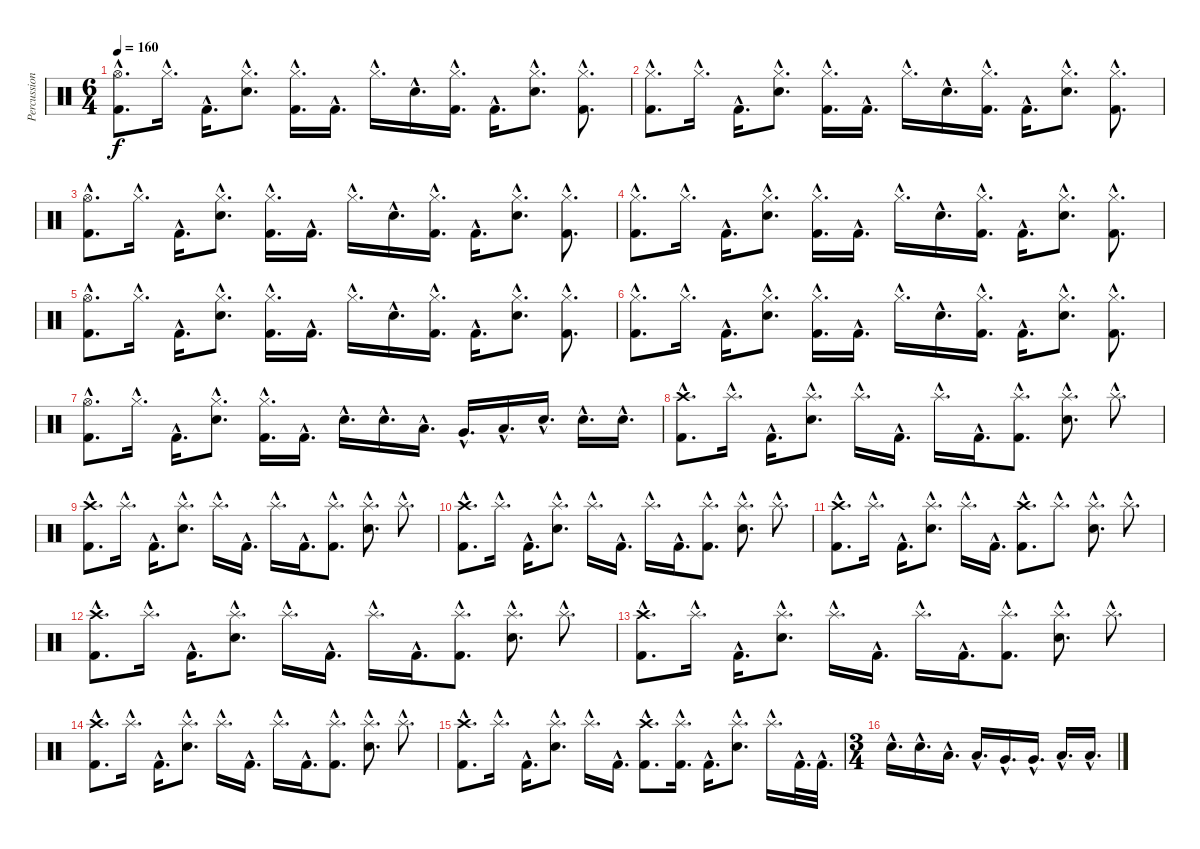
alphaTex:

\track ("Percussion" "Percussion") {instrument percussion}
\staff {score}
\articulation defaults
\ts (6 4)
\tempo 160
\clef neutral
\ks c
("Hi-Hat (open)"{hac} "Kick (hit) 2"{hac}).8{d dy f} "Hi-Hat (closed)"{hac}.16{d} "Kick (hit) 2"{hac}.16{d} ("Hi-Hat (closed)"{hac} "Electric Snare (hit)"{hac}).8{d} ("Hi-Hat (closed)"{hac} "Kick (hit) 2"{hac}).16{d} "Kick (hit) 2"{hac}.16{d} "Hi-Hat (closed)"{hac}.16{d} "Electric Snare (hit)"{hac}.16{d} ("Hi-Hat (closed)"{hac} "Kick (hit) 2"{hac}).16{d} "Kick (hit) 2"{hac}.16{d} ("Hi-Hat (closed)"{hac} "Electric Snare (hit)"{hac}).8{d} ("Hi-Hat (closed)"{hac} "Kick (hit) 2"{hac}).8{d} |
("Hi-Hat (closed)"{hac} "Kick (hit) 2"{hac}).8{d} "Hi-Hat (closed)"{hac}.16{d} "Kick (hit) 2"{hac}.16{d} ("Hi-Hat (closed)"{hac} "Electric Snare (hit)"{hac}).8{d} ("Hi-Hat (closed)"{hac} "Kick (hit) 2"{hac}).16{d} "Kick (hit) 2"{hac}.16{d} "Hi-Hat (closed)"{hac}.16{d} "Electric Snare (hit)"{hac}.16{d} ("Hi-Hat (closed)"{hac} "Kick (hit) 2"{hac}).16{d} "Kick (hit) 2"{hac}.16{d} ("Hi-Hat (closed)"{hac} "Electric Snare (hit)"{hac}).8{d} ("Hi-Hat (closed)"{hac} "Kick (hit) 2"{hac}).8{d} |
("Hi-Hat (open)"{hac} "Kick (hit) 2"{hac}).8{d} "Hi-Hat (closed)"{hac}.16{d} "Kick (hit) 2"{hac}.16{d} ("Hi-Hat (closed)"{hac} "Electric Snare (hit)"{hac}).8{d} ("Hi-Hat (closed)"{hac} "Kick (hit) 2"{hac}).16{d} "Kick (hit) 2"{hac}.16{d} "Hi-Hat (closed)"{hac}.16{d} "Electric Snare (hit)"{hac}.16{d} ("Hi-Hat (closed)"{hac} "Kick (hit) 2"{hac}).16{d} "Kick (hit) 2"{hac}.16{d} ("Hi-Hat (closed)"{hac} "Electric Snare (hit)"{hac}).8{d} ("Hi-Hat (closed)"{hac} "Kick (hit) 2"{hac}).8{d} |
("Hi-Hat (closed)"{hac} "Kick (hit) 2"{hac}).8{d} "Hi-Hat (closed)"{hac}.16{d} "Kick (hit) 2"{hac}.16{d} ("Hi-Hat (closed)"{hac} "Electric Snare (hit)"{hac}).8{d} ("Hi-Hat (closed)"{hac} "Kick (hit) 2"{hac}).16{d} "Kick (hit) 2"{hac}.16{d} "Hi-Hat (closed)"{hac}.16{d} "Electric Snare (hit)"{hac}.16{d} ("Hi-Hat (closed)"{hac} "Kick (hit) 2"{hac}).16{d} "Kick (hit) 2"{hac}.16{d} ("Hi-Hat (closed)"{hac} "Electric Snare (hit)"{hac}).8{d} ("Hi-Hat (closed)"{hac} "Kick (hit) 2"{hac}).8{d} |
("Hi-Hat (open)"{hac} "Kick (hit) 2"{hac}).8{d} "Hi-Hat (closed)"{hac}.16{d} "Kick (hit) 2"{hac}.16{d} ("Hi-Hat (closed)"{hac} "Electric Snare (hit)"{hac}).8{d} ("Hi-Hat (closed)"{hac} "Kick (hit) 2"{hac}).16{d} "Kick (hit) 2"{hac}.16{d} "Hi-Hat (closed)"{hac}.16{d} "Electric Snare (hit)"{hac}.16{d} ("Hi-Hat (closed)"{hac} "Kick (hit) 2"{hac}).16{d} "Kick (hit) 2"{hac}.16{d} ("Hi-Hat (closed)"{hac} "Electric Snare (hit)"{hac}).8{d} ("Hi-Hat (closed)"{hac} "Kick (hit) 2"{hac}).8{d} |
("Hi-Hat (closed)"{hac} "Kick (hit) 2"{hac}).8{d} "Hi-Hat (closed)"{hac}.16{d} "Kick (hit) 2"{hac}.16{d} ("Hi-Hat (closed)"{hac} "Electric Snare (hit)"{hac}).8{d} ("Hi-Hat (closed)"{hac} "Kick (hit) 2"{hac}).16{d} "Kick (hit) 2"{hac}.16{d} "Hi-Hat (closed)"{hac}.16{d} "Electric Snare (hit)"{hac}.16{d} ("Hi-Hat (closed)"{hac} "Kick (hit) 2"{hac}).16{d} "Kick (hit) 2"{hac}.16{d} ("Hi-Hat (closed)"{hac} "Electric Snare (hit)"{hac}).8{d} ("Hi-Hat (closed)"{hac} "Kick (hit) 2"{hac}).8{d} |
("Hi-Hat (open)"{hac} "Kick (hit) 2"{hac}).8{d} "Hi-Hat (closed)"{hac}.16{d} "Kick (hit) 2"{hac}.16{d} ("Hi-Hat (closed)"{hac} "Electric Snare (hit)"{hac}).8{d} ("Hi-Hat (closed)"{hac} "Kick (hit) 2"{hac}).16{d} "Kick (hit) 2"{hac}.16{d} "Electric Snare (hit)"{hac}.16{d} "Electric Snare (hit)"{hac}.16{d} "Low Tom (hit)"{hac}.16{d} "Very Low Tom (hit)"{hac}.16{d} "Low Floor Tom (hit)"{hac}.16{d} "Electric Snare (hit)"{hac}.16{d} "Electric Snare (hit)"{hac}.16{d} "Electric Snare (hit)"{hac}.16{d} |
("Crash high (hit)"{hac} "Kick (hit) 2"{hac}).8{d} "Splash (hit)"{hac}.16{d} "Kick (hit) 2"{hac}.16{d} ("Splash (hit)"{hac} "Electric Snare (hit)"{hac}).8{d} "Splash (hit)"{hac}.16{d} "Kick (hit) 2"{hac}.16{d} "Splash (hit)"{hac}.16{d} "Kick (hit) 2"{hac}.16{d} ("Splash (hit)"{hac} "Kick (hit) 2"{hac}).8{d} ("Splash (hit)"{hac} "Electric Snare (hit)"{hac}).8{d} "Splash (hit)"{hac}.8{d} |
("Crash high (hit)"{hac} "Kick (hit) 2"{hac}).8{d} "Splash (hit)"{hac}.16{d} "Kick (hit) 2"{hac}.16{d} ("Splash (hit)"{hac} "Electric Snare (hit)"{hac}).8{d} "Splash (hit)"{hac}.16{d} "Kick (hit) 2"{hac}.16{d} "Splash (hit)"{hac}.16{d} "Kick (hit) 2"{hac}.16{d} ("Splash (hit)"{hac} "Kick (hit) 2"{hac}).8{d} ("Splash (hit)"{hac} "Electric Snare (hit)"{hac}).8{d} "Splash (hit)"{hac}.8{d} |
("Crash high (hit)"{hac} "Kick (hit) 2"{hac}).8{d} "Splash (hit)"{hac}.16{d} "Kick (hit) 2"{hac}.16{d} ("Splash (hit)"{hac} "Electric Snare (hit)"{hac}).8{d} "Splash (hit)"{hac}.16{d} "Kick (hit) 2"{hac}.16{d} "Splash (hit)"{hac}.16{d} "Kick (hit) 2"{hac}.16{d} ("Splash (hit)"{hac} "Kick (hit) 2"{hac}).8{d} ("Splash (hit)"{hac} "Electric Snare (hit)"{hac}).8{d} "Splash (hit)"{hac}.8{d} |
("Crash high (hit)"{hac} "Kick (hit) 2"{hac}).8{d} "Splash (hit)"{hac}.16{d} "Kick (hit) 2"{hac}.16{d} ("Splash (hit)"{hac} "Electric Snare (hit)"{hac}).8{d} "Splash (hit)"{hac}.16{d} "Kick (hit) 2"{hac}.16{d} ("Crash high (hit)"{hac} "Kick (hit) 2"{hac}).8{d} "Splash (hit)"{hac}.8{d} ("Splash (hit)"{hac} "Electric Snare (hit)"{hac}).8{d} "Splash (hit)"{hac}.8{d} |
("Crash high (hit)"{hac} "Kick (hit) 2"{hac}).8{d} "Splash (hit)"{hac}.16{d} "Kick (hit) 2"{hac}.16{d} ("Splash (hit)"{hac} "Electric Snare (hit)"{hac}).8{d} "Splash (hit)"{hac}.16{d} "Kick (hit) 2"{hac}.16{d} "Splash (hit)"{hac}.16{d} "Kick (hit) 2"{hac}.16{d} ("Splash (hit)"{hac} "Kick (hit) 2"{hac}).8{d} ("Splash (hit)"{hac} "Electric Snare (hit)"{hac}).8{d} "Splash (hit)"{hac}.8{d} |
("Crash high (hit)"{hac} "Kick (hit) 2"{hac}).8{d} "Splash (hit)"{hac}.16{d} "Kick (hit) 2"{hac}.16{d} ("Splash (hit)"{hac} "Electric Snare (hit)"{hac}).8{d} "Splash (hit)"{hac}.16{d} "Kick (hit) 2"{hac}.16{d} "Splash (hit)"{hac}.16{d} "Kick (hit) 2"{hac}.16{d} ("Splash (hit)"{hac} "Kick (hit) 2"{hac}).8{d} ("Splash (hit)"{hac} "Electric Snare (hit)"{hac}).8{d} "Splash (hit)"{hac}.8{d} |
("Crash high (hit)"{hac} "Kick (hit) 2"{hac}).8{d} "Splash (hit)"{hac}.16{d} "Kick (hit) 2"{hac}.16{d} ("Splash (hit)"{hac} "Electric Snare (hit)"{hac}).8{d} "Splash (hit)"{hac}.16{d} "Kick (hit) 2"{hac}.16{d} "Splash (hit)"{hac}.16{d} "Kick (hit) 2"{hac}.16{d} ("Splash (hit)"{hac} "Kick (hit) 2"{hac}).8{d} ("Splash (hit)"{hac} "Electric Snare (hit)"{hac}).8{d} "Splash (hit)"{hac}.8{d} |
("Crash high (hit)"{hac} "Kick (hit) 2"{hac}).8{d} "Splash (hit)"{hac}.16{d} "Kick (hit) 2"{hac}.16{d} ("Splash (hit)"{hac} "Electric Snare (hit)"{hac}).8{d} "Splash (hit)"{hac}.16{d} "Kick (hit) 2"{hac}.16{d} ("Crash high (hit)"{hac} "Kick (hit) 2"{hac}).8{d} ("Splash (hit)"{hac} "Kick (hit) 2"{hac}).16{d} "Kick (hit) 2"{hac}.16{d} ("Splash (hit)"{hac} "Electric Snare (hit)"{hac}).8{d} "Splash (hit)"{hac}.16{d} "Kick (hit) 2"{hac}.32{d} "Kick (hit) 2"{hac}.32{d} |
\ts (3 4)
"Electric Snare (hit)"{hac}.16{d} "Electric Snare (hit)"{hac}.16{d} "Low Tom (hit)"{hac}.16{d} "Low Tom (hit)"{hac}.16{d} "Very Low Tom (hit)"{hac}.16{d} "Very Low Tom (hit)"{hac}.16{d} "Low Floor Tom (hit)"{hac}.16{d} "Low Floor Tom (hit)"{hac}.16{d}
